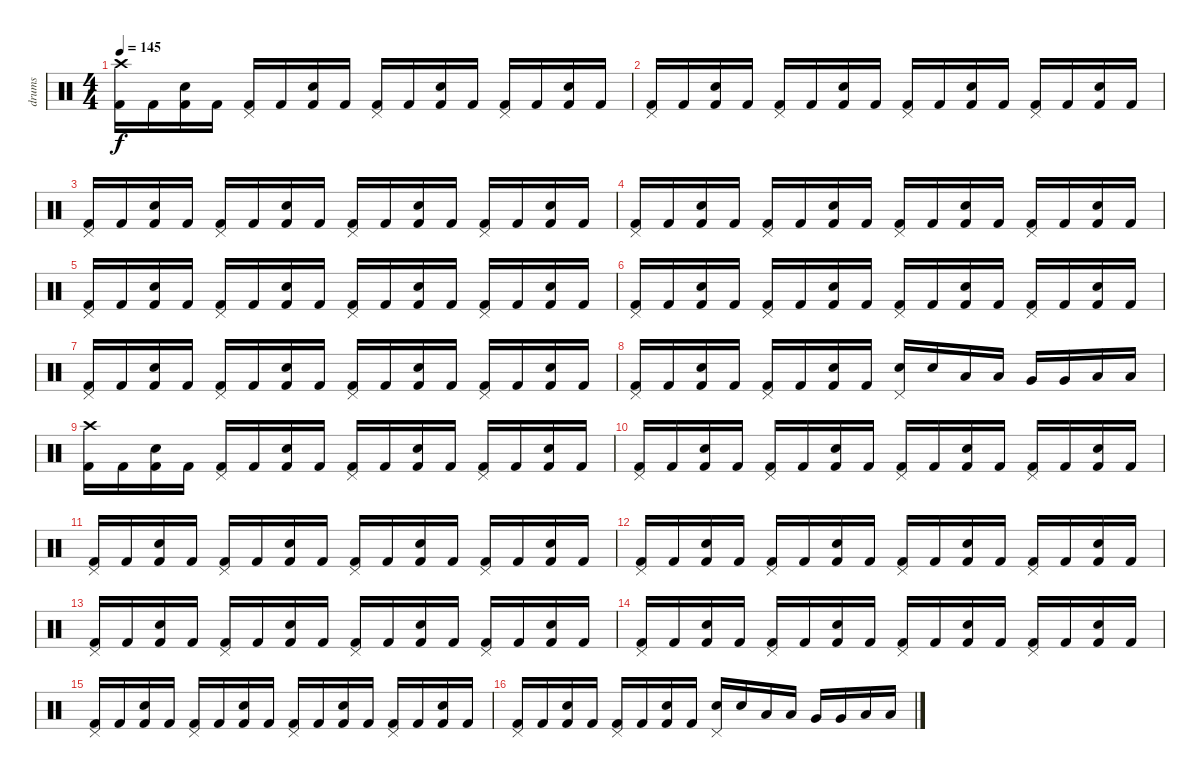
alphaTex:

\track ("drums" "drums") {instrument percussion}
\staff {score}
\articulation defaults
\ts (4 4)
\tempo 145
\clef neutral
\ks c
("Crash high (hit)" "Kick (hit) 2").16{dy f} "Kick (hit) 2".16 ("Electric Snare (hit)" "Kick (hit) 2").16 "Kick (hit) 2".16 ("Pedal Hi-Hat (hit)" "Kick (hit) 2").16 "Kick (hit) 2".16 ("Electric Snare (hit)" "Kick (hit) 2").16 "Kick (hit) 2".16 ("Pedal Hi-Hat (hit)" "Kick (hit) 2").16 "Kick (hit) 2".16 ("Electric Snare (hit)" "Kick (hit) 2").16 "Kick (hit) 2".16 ("Pedal Hi-Hat (hit)" "Kick (hit) 2").16 "Kick (hit) 2".16 ("Electric Snare (hit)" "Kick (hit) 2").16 "Kick (hit) 2".16 |
("Pedal Hi-Hat (hit)" "Kick (hit) 2").16 "Kick (hit) 2".16 ("Electric Snare (hit)" "Kick (hit) 2").16 "Kick (hit) 2".16 ("Pedal Hi-Hat (hit)" "Kick (hit) 2").16 "Kick (hit) 2".16 ("Electric Snare (hit)" "Kick (hit) 2").16 "Kick (hit) 2".16 ("Pedal Hi-Hat (hit)" "Kick (hit) 2").16 "Kick (hit) 2".16 ("Electric Snare (hit)" "Kick (hit) 2").16 "Kick (hit) 2".16 ("Pedal Hi-Hat (hit)" "Kick (hit) 2").16 "Kick (hit) 2".16 ("Electric Snare (hit)" "Kick (hit) 2").16 "Kick (hit) 2".16 |
("Pedal Hi-Hat (hit)" "Kick (hit) 2").16 "Kick (hit) 2".16 ("Electric Snare (hit)" "Kick (hit) 2").16 "Kick (hit) 2".16 ("Pedal Hi-Hat (hit)" "Kick (hit) 2").16 "Kick (hit) 2".16 ("Electric Snare (hit)" "Kick (hit) 2").16 "Kick (hit) 2".16 ("Pedal Hi-Hat (hit)" "Kick (hit) 2").16 "Kick (hit) 2".16 ("Electric Snare (hit)" "Kick (hit) 2").16 "Kick (hit) 2".16 ("Pedal Hi-Hat (hit)" "Kick (hit) 2").16 "Kick (hit) 2".16 ("Electric Snare (hit)" "Kick (hit) 2").16 "Kick (hit) 2".16 |
("Pedal Hi-Hat (hit)" "Kick (hit) 2").16 "Kick (hit) 2".16 ("Electric Snare (hit)" "Kick (hit) 2").16 "Kick (hit) 2".16 ("Pedal Hi-Hat (hit)" "Kick (hit) 2").16 "Kick (hit) 2".16 ("Electric Snare (hit)" "Kick (hit) 2").16 "Kick (hit) 2".16 ("Pedal Hi-Hat (hit)" "Kick (hit) 2").16 "Kick (hit) 2".16 ("Electric Snare (hit)" "Kick (hit) 2").16 "Kick (hit) 2".16 ("Pedal Hi-Hat (hit)" "Kick (hit) 2").16 "Kick (hit) 2".16 ("Electric Snare (hit)" "Kick (hit) 2").16 "Kick (hit) 2".16 |
("Pedal Hi-Hat (hit)" "Kick (hit) 2").16 "Kick (hit) 2".16 ("Electric Snare (hit)" "Kick (hit) 2").16 "Kick (hit) 2".16 ("Pedal Hi-Hat (hit)" "Kick (hit) 2").16 "Kick (hit) 2".16 ("Electric Snare (hit)" "Kick (hit) 2").16 "Kick (hit) 2".16 ("Pedal Hi-Hat (hit)" "Kick (hit) 2").16 "Kick (hit) 2".16 ("Electric Snare (hit)" "Kick (hit) 2").16 "Kick (hit) 2".16 ("Pedal Hi-Hat (hit)" "Kick (hit) 2").16 "Kick (hit) 2".16 ("Electric Snare (hit)" "Kick (hit) 2").16 "Kick (hit) 2".16 |
("Pedal Hi-Hat (hit)" "Kick (hit) 2").16 "Kick (hit) 2".16 ("Electric Snare (hit)" "Kick (hit) 2").16 "Kick (hit) 2".16 ("Pedal Hi-Hat (hit)" "Kick (hit) 2").16 "Kick (hit) 2".16 ("Electric Snare (hit)" "Kick (hit) 2").16 "Kick (hit) 2".16 ("Pedal Hi-Hat (hit)" "Kick (hit) 2").16 "Kick (hit) 2".16 ("Electric Snare (hit)" "Kick (hit) 2").16 "Kick (hit) 2".16 ("Pedal Hi-Hat (hit)" "Kick (hit) 2").16 "Kick (hit) 2".16 ("Electric Snare (hit)" "Kick (hit) 2").16 "Kick (hit) 2".16 |
("Pedal Hi-Hat (hit)" "Kick (hit) 2").16 "Kick (hit) 2".16 ("Electric Snare (hit)" "Kick (hit) 2").16 "Kick (hit) 2".16 ("Pedal Hi-Hat (hit)" "Kick (hit) 2").16 "Kick (hit) 2".16 ("Electric Snare (hit)" "Kick (hit) 2").16 "Kick (hit) 2".16 ("Pedal Hi-Hat (hit)" "Kick (hit) 2").16 "Kick (hit) 2".16 ("Electric Snare (hit)" "Kick (hit) 2").16 "Kick (hit) 2".16 ("Pedal Hi-Hat (hit)" "Kick (hit) 2").16 "Kick (hit) 2".16 ("Electric Snare (hit)" "Kick (hit) 2").16 "Kick (hit) 2".16 |
("Pedal Hi-Hat (hit)" "Kick (hit) 2").16 "Kick (hit) 2".16 ("Electric Snare (hit)" "Kick (hit) 2").16 "Kick (hit) 2".16 ("Pedal Hi-Hat (hit)" "Kick (hit) 2").16 "Kick (hit) 2".16 ("Electric Snare (hit)" "Kick (hit) 2").16 "Kick (hit) 2".16 ("Pedal Hi-Hat (hit)" "Snare (hit) 2").16 "Snare (hit) 2".16 "Low Tom (hit)".16 "Low Tom (hit)".16 "Very Low Tom (hit)".16 "Very Low Tom (hit)".16 "Low Floor Tom (hit)".16 "Low Floor Tom (hit)".16 |
("Crash high (hit)" "Kick (hit) 2").16 "Kick (hit) 2".16 ("Electric Snare (hit)" "Kick (hit) 2").16 "Kick (hit) 2".16 ("Pedal Hi-Hat (hit)" "Kick (hit) 2").16 "Kick (hit) 2".16 ("Electric Snare (hit)" "Kick (hit) 2").16 "Kick (hit) 2".16 ("Pedal Hi-Hat (hit)" "Kick (hit) 2").16 "Kick (hit) 2".16 ("Electric Snare (hit)" "Kick (hit) 2").16 "Kick (hit) 2".16 ("Pedal Hi-Hat (hit)" "Kick (hit) 2").16 "Kick (hit) 2".16 ("Electric Snare (hit)" "Kick (hit) 2").16 "Kick (hit) 2".16 |
("Pedal Hi-Hat (hit)" "Kick (hit) 2").16 "Kick (hit) 2".16 ("Electric Snare (hit)" "Kick (hit) 2").16 "Kick (hit) 2".16 ("Pedal Hi-Hat (hit)" "Kick (hit) 2").16 "Kick (hit) 2".16 ("Electric Snare (hit)" "Kick (hit) 2").16 "Kick (hit) 2".16 ("Pedal Hi-Hat (hit)" "Kick (hit) 2").16 "Kick (hit) 2".16 ("Electric Snare (hit)" "Kick (hit) 2").16 "Kick (hit) 2".16 ("Pedal Hi-Hat (hit)" "Kick (hit) 2").16 "Kick (hit) 2".16 ("Electric Snare (hit)" "Kick (hit) 2").16 "Kick (hit) 2".16 |
("Pedal Hi-Hat (hit)" "Kick (hit) 2").16 "Kick (hit) 2".16 ("Electric Snare (hit)" "Kick (hit) 2").16 "Kick (hit) 2".16 ("Pedal Hi-Hat (hit)" "Kick (hit) 2").16 "Kick (hit) 2".16 ("Electric Snare (hit)" "Kick (hit) 2").16 "Kick (hit) 2".16 ("Pedal Hi-Hat (hit)" "Kick (hit) 2").16 "Kick (hit) 2".16 ("Electric Snare (hit)" "Kick (hit) 2").16 "Kick (hit) 2".16 ("Pedal Hi-Hat (hit)" "Kick (hit) 2").16 "Kick (hit) 2".16 ("Electric Snare (hit)" "Kick (hit) 2").16 "Kick (hit) 2".16 |
("Pedal Hi-Hat (hit)" "Kick (hit) 2").16 "Kick (hit) 2".16 ("Electric Snare (hit)" "Kick (hit) 2").16 "Kick (hit) 2".16 ("Pedal Hi-Hat (hit)" "Kick (hit) 2").16 "Kick (hit) 2".16 ("Electric Snare (hit)" "Kick (hit) 2").16 "Kick (hit) 2".16 ("Pedal Hi-Hat (hit)" "Kick (hit) 2").16 "Kick (hit) 2".16 ("Electric Snare (hit)" "Kick (hit) 2").16 "Kick (hit) 2".16 ("Pedal Hi-Hat (hit)" "Kick (hit) 2").16 "Kick (hit) 2".16 ("Electric Snare (hit)" "Kick (hit) 2").16 "Kick (hit) 2".16 |
("Pedal Hi-Hat (hit)" "Kick (hit) 2").16 "Kick (hit) 2".16 ("Electric Snare (hit)" "Kick (hit) 2").16 "Kick (hit) 2".16 ("Pedal Hi-Hat (hit)" "Kick (hit) 2").16 "Kick (hit) 2".16 ("Electric Snare (hit)" "Kick (hit) 2").16 "Kick (hit) 2".16 ("Pedal Hi-Hat (hit)" "Kick (hit) 2").16 "Kick (hit) 2".16 ("Electric Snare (hit)" "Kick (hit) 2").16 "Kick (hit) 2".16 ("Pedal Hi-Hat (hit)" "Kick (hit) 2").16 "Kick (hit) 2".16 ("Electric Snare (hit)" "Kick (hit) 2").16 "Kick (hit) 2".16 |
("Pedal Hi-Hat (hit)" "Kick (hit) 2").16 "Kick (hit) 2".16 ("Electric Snare (hit)" "Kick (hit) 2").16 "Kick (hit) 2".16 ("Pedal Hi-Hat (hit)" "Kick (hit) 2").16 "Kick (hit) 2".16 ("Electric Snare (hit)" "Kick (hit) 2").16 "Kick (hit) 2".16 ("Pedal Hi-Hat (hit)" "Kick (hit) 2").16 "Kick (hit) 2".16 ("Electric Snare (hit)" "Kick (hit) 2").16 "Kick (hit) 2".16 ("Pedal Hi-Hat (hit)" "Kick (hit) 2").16 "Kick (hit) 2".16 ("Electric Snare (hit)" "Kick (hit) 2").16 "Kick (hit) 2".16 |
("Pedal Hi-Hat (hit)" "Kick (hit) 2").16 "Kick (hit) 2".16 ("Electric Snare (hit)" "Kick (hit) 2").16 "Kick (hit) 2".16 ("Pedal Hi-Hat (hit)" "Kick (hit) 2").16 "Kick (hit) 2".16 ("Electric Snare (hit)" "Kick (hit) 2").16 "Kick (hit) 2".16 ("Pedal Hi-Hat (hit)" "Kick (hit) 2").16 "Kick (hit) 2".16 ("Electric Snare (hit)" "Kick (hit) 2").16 "Kick (hit) 2".16 ("Pedal Hi-Hat (hit)" "Kick (hit) 2").16 "Kick (hit) 2".16 ("Electric Snare (hit)" "Kick (hit) 2").16 "Kick (hit) 2".16 |
("Pedal Hi-Hat (hit)" "Kick (hit) 2").16 "Kick (hit) 2".16 ("Electric Snare (hit)" "Kick (hit) 2").16 "Kick (hit) 2".16 ("Pedal Hi-Hat (hit)" "Kick (hit) 2").16 "Kick (hit) 2".16 ("Electric Snare (hit)" "Kick (hit) 2").16 "Kick (hit) 2".16 ("Pedal Hi-Hat (hit)" "Snare (hit) 2").16 "Snare (hit) 2".16 "Low Tom (hit)".16 "Low Tom (hit)".16 "Very Low Tom (hit)".16 "Very Low Tom (hit)".16 "Low Floor Tom (hit)".16 "Low Floor Tom (hit)".16
